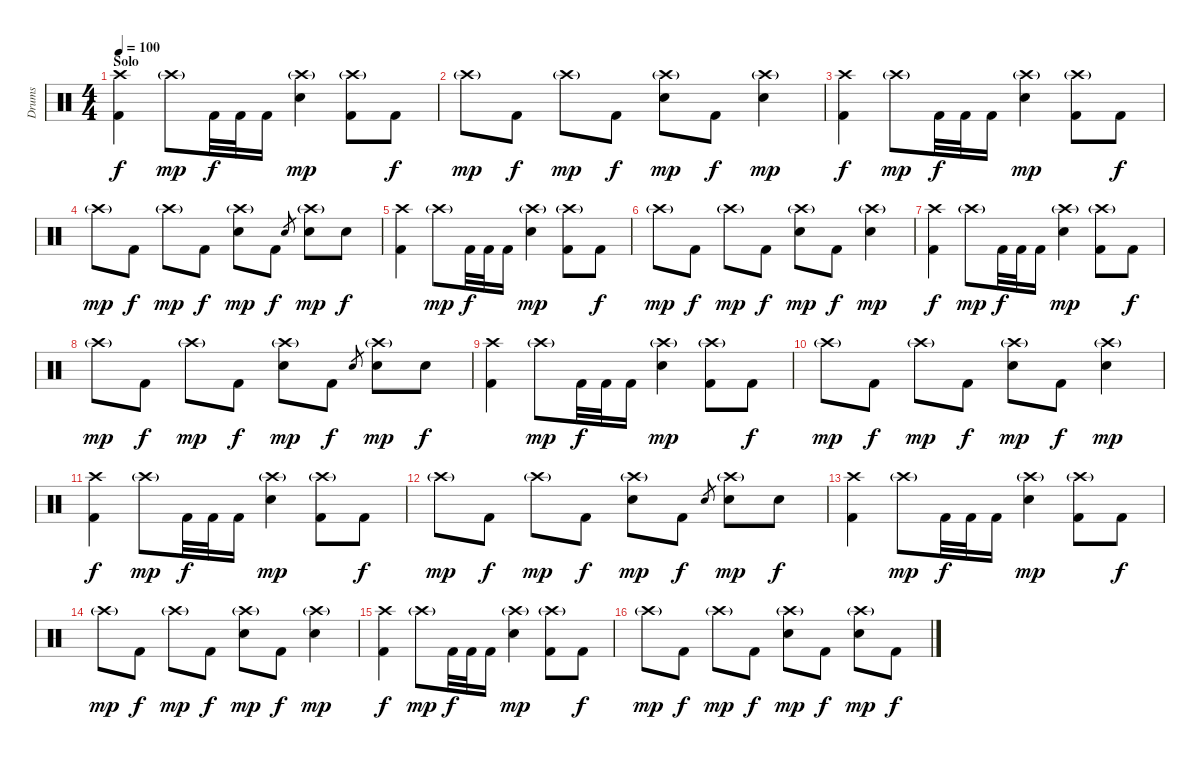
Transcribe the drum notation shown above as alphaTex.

\track ("Drums" "Drums") {instrument percussion}
\staff {score}
\articulation defaults
\ts (4 4)
\section ("" "Solo")
\tempo 100
\clef neutral
\ks c
("Crash high (hit)" "Kick (hit) 2").4{dy f} "Crash high (hit)"{g}.8{dy mp} "Kick (hit) 2".32{dy f} "Kick (hit) 2".32 "Kick (hit) 2".16 ("Crash high (hit)"{g} "Snare (hit) 2").4{dy mp} ("Crash high (hit)"{g} "Kick (hit) 2").8 "Kick (hit) 2".8{dy f} |
"Crash high (hit)"{g}.8{dy mp} "Kick (hit) 2".8{dy f} "Crash high (hit)"{g}.8{dy mp} "Kick (hit) 2".8{dy f} ("Crash high (hit)"{g} "Snare (hit) 2").8{dy mp} "Kick (hit) 2".8{dy f} ("Crash high (hit)"{g} "Snare (hit) 2").4{dy mp} |
("Crash high (hit)" "Kick (hit) 2").4{dy f} "Crash high (hit)"{g}.8{dy mp} "Kick (hit) 2".32{dy f} "Kick (hit) 2".32 "Kick (hit) 2".16 ("Crash high (hit)"{g} "Snare (hit) 2").4{dy mp} ("Crash high (hit)"{g} "Kick (hit) 2").8 "Kick (hit) 2".8{dy f} |
"Crash high (hit)"{g}.8{dy mp} "Kick (hit) 2".8{dy f} "Crash high (hit)"{g}.8{dy mp} "Kick (hit) 2".8{dy f} ("Crash high (hit)"{g} "Snare (hit) 2").8{dy mp} "Kick (hit) 2".8{dy f} "Snare (hit) 2".8{gr} ("Crash high (hit)"{g} "Snare (hit) 2").8{dy mp} "Snare (hit) 2".8{dy f} |
("Crash high (hit)" "Kick (hit) 2").4 "Crash high (hit)"{g}.8{dy mp} "Kick (hit) 2".32{dy f} "Kick (hit) 2".32 "Kick (hit) 2".16 ("Crash high (hit)"{g} "Snare (hit) 2").4{dy mp} ("Crash high (hit)"{g} "Kick (hit) 2").8 "Kick (hit) 2".8{dy f} |
"Crash high (hit)"{g}.8{dy mp} "Kick (hit) 2".8{dy f} "Crash high (hit)"{g}.8{dy mp} "Kick (hit) 2".8{dy f} ("Crash high (hit)"{g} "Snare (hit) 2").8{dy mp} "Kick (hit) 2".8{dy f} ("Crash high (hit)"{g} "Snare (hit) 2").4{dy mp} |
("Crash high (hit)" "Kick (hit) 2").4{dy f} "Crash high (hit)"{g}.8{dy mp} "Kick (hit) 2".32{dy f} "Kick (hit) 2".32 "Kick (hit) 2".16 ("Crash high (hit)"{g} "Snare (hit) 2").4{dy mp} ("Crash high (hit)"{g} "Kick (hit) 2").8 "Kick (hit) 2".8{dy f} |
"Crash high (hit)"{g}.8{dy mp} "Kick (hit) 2".8{dy f} "Crash high (hit)"{g}.8{dy mp} "Kick (hit) 2".8{dy f} ("Crash high (hit)"{g} "Snare (hit) 2").8{dy mp} "Kick (hit) 2".8{dy f} "Snare (hit) 2".8{gr} ("Crash high (hit)"{g} "Snare (hit) 2").8{dy mp} "Snare (hit) 2".8{dy f} |
("Crash high (hit)" "Kick (hit) 2").4 "Crash high (hit)"{g}.8{dy mp} "Kick (hit) 2".32{dy f} "Kick (hit) 2".32 "Kick (hit) 2".16 ("Crash high (hit)"{g} "Snare (hit) 2").4{dy mp} ("Crash high (hit)"{g} "Kick (hit) 2").8 "Kick (hit) 2".8{dy f} |
"Crash high (hit)"{g}.8{dy mp} "Kick (hit) 2".8{dy f} "Crash high (hit)"{g}.8{dy mp} "Kick (hit) 2".8{dy f} ("Crash high (hit)"{g} "Snare (hit) 2").8{dy mp} "Kick (hit) 2".8{dy f} ("Crash high (hit)"{g} "Snare (hit) 2").4{dy mp} |
("Crash high (hit)" "Kick (hit) 2").4{dy f} "Crash high (hit)"{g}.8{dy mp} "Kick (hit) 2".32{dy f} "Kick (hit) 2".32 "Kick (hit) 2".16 ("Crash high (hit)"{g} "Snare (hit) 2").4{dy mp} ("Crash high (hit)"{g} "Kick (hit) 2").8 "Kick (hit) 2".8{dy f} |
"Crash high (hit)"{g}.8{dy mp} "Kick (hit) 2".8{dy f} "Crash high (hit)"{g}.8{dy mp} "Kick (hit) 2".8{dy f} ("Crash high (hit)"{g} "Snare (hit) 2").8{dy mp} "Kick (hit) 2".8{dy f} "Snare (hit) 2".8{gr} ("Crash high (hit)"{g} "Snare (hit) 2").8{dy mp} "Snare (hit) 2".8{dy f} |
("Crash high (hit)" "Kick (hit) 2").4 "Crash high (hit)"{g}.8{dy mp} "Kick (hit) 2".32{dy f} "Kick (hit) 2".32 "Kick (hit) 2".16 ("Crash high (hit)"{g} "Snare (hit) 2").4{dy mp} ("Crash high (hit)"{g} "Kick (hit) 2").8 "Kick (hit) 2".8{dy f} |
"Crash high (hit)"{g}.8{dy mp} "Kick (hit) 2".8{dy f} "Crash high (hit)"{g}.8{dy mp} "Kick (hit) 2".8{dy f} ("Crash high (hit)"{g} "Snare (hit) 2").8{dy mp} "Kick (hit) 2".8{dy f} ("Crash high (hit)"{g} "Snare (hit) 2").4{dy mp} |
("Crash high (hit)" "Kick (hit) 2").4{dy f} "Crash high (hit)"{g}.8{dy mp} "Kick (hit) 2".32{dy f} "Kick (hit) 2".32 "Kick (hit) 2".16 ("Crash high (hit)"{g} "Snare (hit) 2").4{dy mp} ("Crash high (hit)"{g} "Kick (hit) 2").8 "Kick (hit) 2".8{dy f} |
"Crash high (hit)"{g}.8{dy mp} "Kick (hit) 2".8{dy f} "Crash high (hit)"{g}.8{dy mp} "Kick (hit) 2".8{dy f} ("Crash high (hit)"{g} "Snare (hit) 2").8{dy mp} "Kick (hit) 2".8{dy f} ("Crash high (hit)"{g} "Snare (hit) 2").8{dy mp} "Kick (hit) 2".8{dy f}
